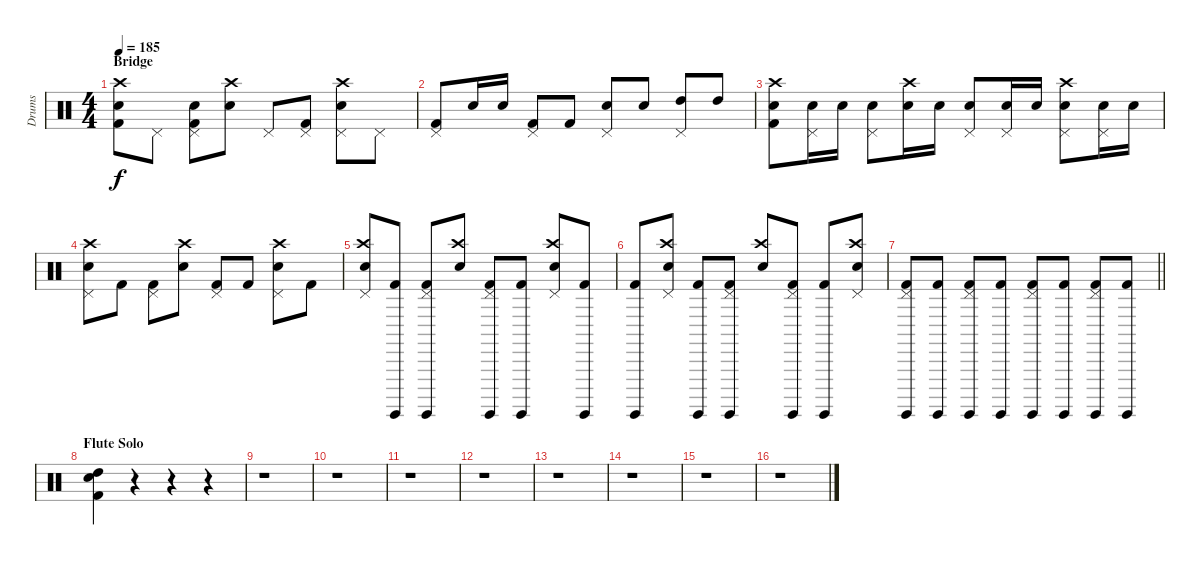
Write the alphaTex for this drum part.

\track ("Drums" "Drums") {instrument percussion}
\staff {score}
\articulation defaults
\ts (4 4)
\section ("" "Bridge")
\tempo 185
\clef neutral
\ks c
("Crash high (hit)" "Electric Snare (hit)" "Kick (hit) 2").8{dy f} "Pedal Hi-Hat (hit)".8 ("Pedal Hi-Hat (hit)" "Electric Snare (hit)" "Kick (hit) 2").8 ("Crash high (hit)" "Electric Snare (hit)").8 "Pedal Hi-Hat (hit)".8 ("Pedal Hi-Hat (hit)" "Kick (hit) 2").8 ("Crash high (hit)" "Pedal Hi-Hat (hit)" "Electric Snare (hit)").8 "Pedal Hi-Hat (hit)".8 |
("Pedal Hi-Hat (hit)" "Kick (hit) 2").8 "Electric Snare (hit)".16 "Electric Snare (hit)".16 ("Pedal Hi-Hat (hit)" "Kick (hit) 2").8 "Kick (hit) 2".8 ("Pedal Hi-Hat (hit)" "Electric Snare (hit)").8 "Electric Snare (hit)".8 ("Pedal Hi-Hat (hit)" "High Tom (hit)").8 "High Tom (hit)".8 |
("Crash high (hit)" "Electric Snare (hit)" "Kick (hit) 2").8 ("Pedal Hi-Hat (hit)" "Electric Snare (hit)").16 "Electric Snare (hit)".16 ("Pedal Hi-Hat (hit)" "Electric Snare (hit)").8 ("Crash high (hit)" "Electric Snare (hit)").16 "Electric Snare (hit)".16 ("Pedal Hi-Hat (hit)" "Electric Snare (hit)").8 ("Pedal Hi-Hat (hit)" "Electric Snare (hit)").16 "Electric Snare (hit)".16 ("Crash high (hit)" "Pedal Hi-Hat (hit)" "Electric Snare (hit)").8 ("Pedal Hi-Hat (hit)" "Electric Snare (hit)").16 "Electric Snare (hit)".16 |
("Crash high (hit)" "Pedal Hi-Hat (hit)" "Electric Snare (hit)").8 "Kick (hit) 2".8 ("Pedal Hi-Hat (hit)" "Kick (hit) 2").8 ("Crash high (hit)" "Electric Snare (hit)").8 ("Pedal Hi-Hat (hit)" "Kick (hit) 2").8 "Kick (hit) 2".8 ("Crash high (hit)" "Pedal Hi-Hat (hit)" "Electric Snare (hit)").8 "Kick (hit) 2".8 |
("Crash high (hit)" "Pedal Hi-Hat (hit)" "Electric Snare (hit)").8 ("Surdo (hit)" "Kick (hit) 2").8 ("Pedal Hi-Hat (hit)" "Surdo (hit)" "Kick (hit) 2").8 ("Crash high (hit)" "Electric Snare (hit)").8 ("Pedal Hi-Hat (hit)" "Surdo (hit)" "Kick (hit) 2").8 ("Surdo (hit)" "Kick (hit) 2").8 ("Crash high (hit)" "Pedal Hi-Hat (hit)" "Electric Snare (hit)").8 ("Surdo (hit)" "Kick (hit) 2").8 |
("Surdo (hit)" "Kick (hit) 2").8 ("Crash high (hit)" "Pedal Hi-Hat (hit)" "Electric Snare (hit)").8 ("Surdo (hit)" "Kick (hit) 2").8 ("Pedal Hi-Hat (hit)" "Surdo (hit)" "Kick (hit) 2").8 ("Crash high (hit)" "Electric Snare (hit)").8 ("Pedal Hi-Hat (hit)" "Surdo (hit)" "Kick (hit) 2").8 ("Surdo (hit)" "Kick (hit) 2").8 ("Crash high (hit)" "Pedal Hi-Hat (hit)" "Electric Snare (hit)").8 |
\barLineRight lightlight
("Pedal Hi-Hat (hit)" "Surdo (hit)" "Kick (hit) 2").8 ("Surdo (hit)" "Kick (hit) 2").8 ("Pedal Hi-Hat (hit)" "Surdo (hit)" "Kick (hit) 2").8 ("Surdo (hit)" "Kick (hit) 2").8 ("Pedal Hi-Hat (hit)" "Surdo (hit)" "Kick (hit) 2").8 ("Surdo (hit)" "Kick (hit) 2").8 ("Pedal Hi-Hat (hit)" "Surdo (hit)" "Kick (hit) 2").8 ("Surdo (hit)" "Kick (hit) 2").8 |
\section ("" "Flute Solo")
("Electric Snare (hit)" "High Tom (hit)" "Kick (hit) 2").4 r.4 r.4 r.4 |
r.1 |
r.1 |
r.1 |
r.1 |
r.1 |
r.1 |
r.1 |
r.1
